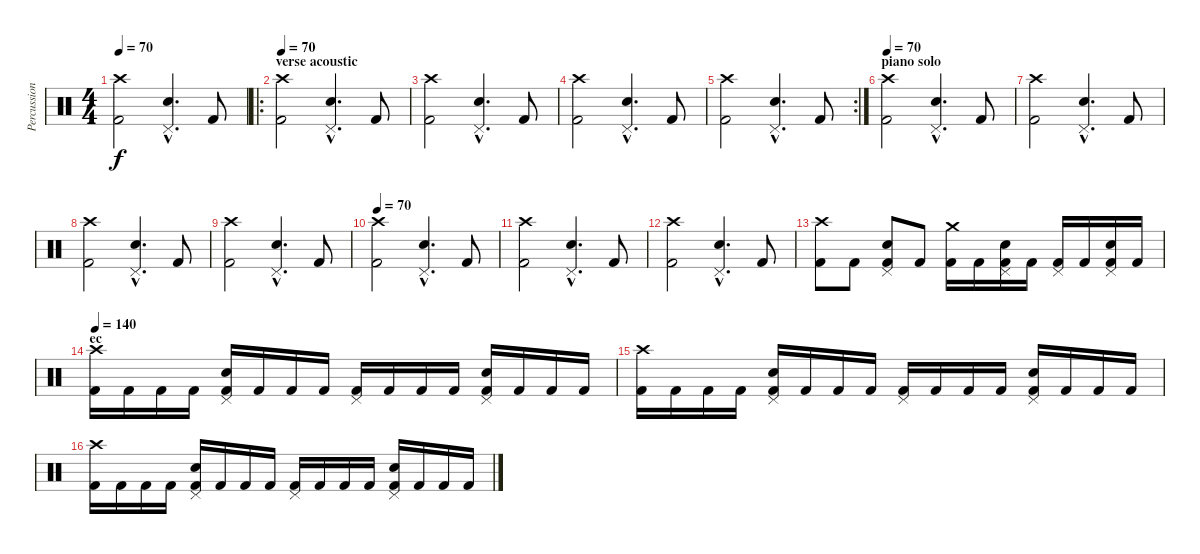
\track ("Percussion" "Percussion") {instrument percussion}
\staff {score}
\articulation defaults
\ts (4 4)
\tempo 70
\clef neutral
\ks c
("Crash high (hit)" "Kick (hit) 2").2{dy f} ("Pedal Hi-Hat (hit)"{hac} "Snare (hit) 2"{hac}).4{d} "Kick (hit) 2".8 |
\ro
\section ("" "verse acoustic")
\tempo 70
("Crash high (hit)" "Kick (hit) 2").2 ("Pedal Hi-Hat (hit)"{hac} "Snare (hit) 2"{hac}).4{d} "Kick (hit) 2".8 |
("Crash high (hit)" "Kick (hit) 2").2 ("Pedal Hi-Hat (hit)"{hac} "Snare (hit) 2"{hac}).4{d} "Kick (hit) 2".8 |
("Crash high (hit)" "Kick (hit) 2").2 ("Pedal Hi-Hat (hit)"{hac} "Snare (hit) 2"{hac}).4{d} "Kick (hit) 2".8 |
\rc 2
("Crash high (hit)" "Kick (hit) 2").2 ("Pedal Hi-Hat (hit)"{hac} "Snare (hit) 2"{hac}).4{d} "Kick (hit) 2".8 |
\section ("" "piano solo")
\tempo 70
("Crash high (hit)" "Kick (hit) 2").2 ("Pedal Hi-Hat (hit)"{hac} "Snare (hit) 2"{hac}).4{d} "Kick (hit) 2".8 |
("Crash high (hit)" "Kick (hit) 2").2 ("Pedal Hi-Hat (hit)"{hac} "Snare (hit) 2"{hac}).4{d} "Kick (hit) 2".8 |
("Crash high (hit)" "Kick (hit) 2").2 ("Pedal Hi-Hat (hit)"{hac} "Snare (hit) 2"{hac}).4{d} "Kick (hit) 2".8 |
("Crash high (hit)" "Kick (hit) 2").2 ("Pedal Hi-Hat (hit)"{hac} "Snare (hit) 2"{hac}).4{d} "Kick (hit) 2".8 |
\tempo 70
("Crash high (hit)" "Kick (hit) 2").2 ("Pedal Hi-Hat (hit)"{hac} "Snare (hit) 2"{hac}).4{d} "Kick (hit) 2".8 |
("Crash high (hit)" "Kick (hit) 2").2 ("Pedal Hi-Hat (hit)"{hac} "Snare (hit) 2"{hac}).4{d} "Kick (hit) 2".8 |
("Crash high (hit)" "Kick (hit) 2").2 ("Pedal Hi-Hat (hit)"{hac} "Snare (hit) 2"{hac}).4{d} "Kick (hit) 2".8 |
("Crash high (hit)" "Kick (hit) 2").8 "Kick (hit) 2".8 ("Pedal Hi-Hat (hit)" "Snare (hit) 2" "Kick (hit) 2").8 "Kick (hit) 2".8 ("Crash medium (hit)" "Kick (hit) 2").16 "Kick (hit) 2".16 ("Pedal Hi-Hat (hit)" "Snare (hit) 2" "Kick (hit) 2").16 "Kick (hit) 2".16 ("Pedal Hi-Hat (hit)" "Kick (hit) 2").16 "Kick (hit) 2".16 ("Pedal Hi-Hat (hit)" "Snare (hit) 2" "Kick (hit) 2").16 "Kick (hit) 2".16 |
\section ("" "ec")
\tempo 140
("Crash high (hit)" "Kick (hit) 2").16 "Kick (hit) 2".16 "Kick (hit) 2".16 "Kick (hit) 2".16 ("Pedal Hi-Hat (hit)" "Electric Snare (hit)" "Kick (hit) 2").16 "Kick (hit) 2".16 "Kick (hit) 2".16 "Kick (hit) 2".16 ("Pedal Hi-Hat (hit)" "Kick (hit) 2").16 "Kick (hit) 2".16 "Kick (hit) 2".16 "Kick (hit) 2".16 ("Pedal Hi-Hat (hit)" "Electric Snare (hit)" "Kick (hit) 2").16 "Kick (hit) 2".16 "Kick (hit) 2".16 "Kick (hit) 2".16 |
("Crash high (hit)" "Kick (hit) 2").16 "Kick (hit) 2".16 "Kick (hit) 2".16 "Kick (hit) 2".16 ("Pedal Hi-Hat (hit)" "Electric Snare (hit)" "Kick (hit) 2").16 "Kick (hit) 2".16 "Kick (hit) 2".16 "Kick (hit) 2".16 ("Pedal Hi-Hat (hit)" "Kick (hit) 2").16 "Kick (hit) 2".16 "Kick (hit) 2".16 "Kick (hit) 2".16 ("Pedal Hi-Hat (hit)" "Electric Snare (hit)" "Kick (hit) 2").16 "Kick (hit) 2".16 "Kick (hit) 2".16 "Kick (hit) 2".16 |
("Crash high (hit)" "Kick (hit) 2").16 "Kick (hit) 2".16 "Kick (hit) 2".16 "Kick (hit) 2".16 ("Pedal Hi-Hat (hit)" "Electric Snare (hit)" "Kick (hit) 2").16 "Kick (hit) 2".16 "Kick (hit) 2".16 "Kick (hit) 2".16 ("Pedal Hi-Hat (hit)" "Kick (hit) 2").16 "Kick (hit) 2".16 "Kick (hit) 2".16 "Kick (hit) 2".16 ("Pedal Hi-Hat (hit)" "Electric Snare (hit)" "Kick (hit) 2").16 "Kick (hit) 2".16 "Kick (hit) 2".16 "Kick (hit) 2".16
